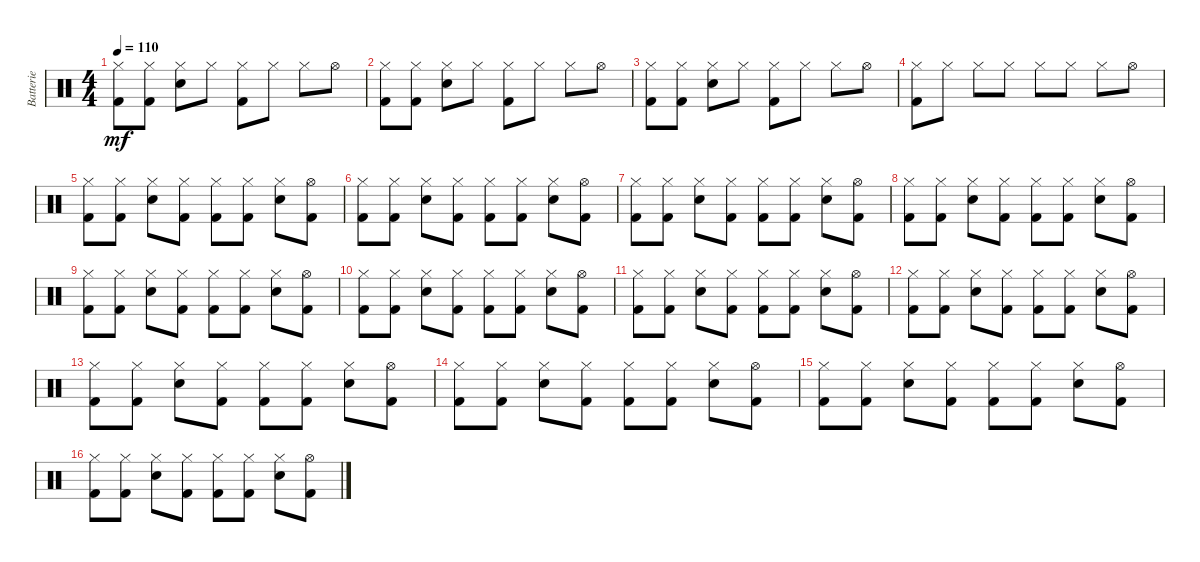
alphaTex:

\track ("Batterie" "Batterie") {instrument percussion}
\staff {score}
\articulation defaults
\ts (4 4)
\tempo 110
\clef neutral
\ks c
("Hi-Hat (closed)" "Kick (hit) 2").8{dy mf} ("Hi-Hat (closed)" "Kick (hit) 2").8 ("Hi-Hat (closed)" "Electric Snare (hit)").8 "Hi-Hat (closed)".8 ("Hi-Hat (closed)" "Kick (hit) 2").8 "Hi-Hat (closed)".8 "Hi-Hat (closed)".8 "Hi-Hat (open)".8 |
("Hi-Hat (closed)" "Kick (hit) 2").8 ("Hi-Hat (closed)" "Kick (hit) 2").8 ("Hi-Hat (closed)" "Electric Snare (hit)").8 "Hi-Hat (closed)".8 ("Hi-Hat (closed)" "Kick (hit) 2").8 "Hi-Hat (closed)".8 "Hi-Hat (closed)".8 "Hi-Hat (open)".8 |
("Hi-Hat (closed)" "Kick (hit) 2").8 ("Hi-Hat (closed)" "Kick (hit) 2").8 ("Hi-Hat (closed)" "Electric Snare (hit)").8 "Hi-Hat (closed)".8 ("Hi-Hat (closed)" "Kick (hit) 2").8 "Hi-Hat (closed)".8 "Hi-Hat (closed)".8 "Hi-Hat (open)".8 |
("Hi-Hat (closed)" "Kick (hit) 2").8 "Hi-Hat (closed)".8 "Hi-Hat (closed)".8 "Hi-Hat (closed)".8 "Hi-Hat (closed)".8 "Hi-Hat (closed)".8 "Hi-Hat (closed)".8 "Hi-Hat (open)".8 |
("Hi-Hat (closed)" "Kick (hit) 2").8 ("Hi-Hat (closed)" "Kick (hit) 2").8 ("Hi-Hat (closed)" "Electric Snare (hit)").8 ("Hi-Hat (closed)" "Kick (hit) 2").8 ("Hi-Hat (closed)" "Kick (hit) 2").8 ("Hi-Hat (closed)" "Kick (hit) 2").8 ("Hi-Hat (closed)" "Electric Snare (hit)").8 ("Hi-Hat (open)" "Kick (hit) 2").8 |
("Hi-Hat (closed)" "Kick (hit) 2").8 ("Hi-Hat (closed)" "Kick (hit) 2").8 ("Hi-Hat (closed)" "Electric Snare (hit)").8 ("Hi-Hat (closed)" "Kick (hit) 2").8 ("Hi-Hat (closed)" "Kick (hit) 2").8 ("Hi-Hat (closed)" "Kick (hit) 2").8 ("Hi-Hat (closed)" "Electric Snare (hit)").8 ("Hi-Hat (open)" "Kick (hit) 2").8 |
("Hi-Hat (closed)" "Kick (hit) 2").8 ("Hi-Hat (closed)" "Kick (hit) 2").8 ("Hi-Hat (closed)" "Electric Snare (hit)").8 ("Hi-Hat (closed)" "Kick (hit) 2").8 ("Hi-Hat (closed)" "Kick (hit) 2").8 ("Hi-Hat (closed)" "Kick (hit) 2").8 ("Hi-Hat (closed)" "Electric Snare (hit)").8 ("Hi-Hat (open)" "Kick (hit) 2").8 |
("Hi-Hat (closed)" "Kick (hit) 2").8 ("Hi-Hat (closed)" "Kick (hit) 2").8 ("Hi-Hat (closed)" "Electric Snare (hit)").8 ("Hi-Hat (closed)" "Kick (hit) 2").8 ("Hi-Hat (closed)" "Kick (hit) 2").8 ("Hi-Hat (closed)" "Kick (hit) 2").8 ("Hi-Hat (closed)" "Electric Snare (hit)").8 ("Hi-Hat (open)" "Kick (hit) 2").8 |
("Hi-Hat (closed)" "Kick (hit) 2").8 ("Hi-Hat (closed)" "Kick (hit) 2").8 ("Hi-Hat (closed)" "Electric Snare (hit)").8 ("Hi-Hat (closed)" "Kick (hit) 2").8 ("Hi-Hat (closed)" "Kick (hit) 2").8 ("Hi-Hat (closed)" "Kick (hit) 2").8 ("Hi-Hat (closed)" "Electric Snare (hit)").8 ("Hi-Hat (open)" "Kick (hit) 2").8 |
("Hi-Hat (closed)" "Kick (hit) 2").8 ("Hi-Hat (closed)" "Kick (hit) 2").8 ("Hi-Hat (closed)" "Electric Snare (hit)").8 ("Hi-Hat (closed)" "Kick (hit) 2").8 ("Hi-Hat (closed)" "Kick (hit) 2").8 ("Hi-Hat (closed)" "Kick (hit) 2").8 ("Hi-Hat (closed)" "Electric Snare (hit)").8 ("Hi-Hat (open)" "Kick (hit) 2").8 |
("Hi-Hat (closed)" "Kick (hit) 2").8 ("Hi-Hat (closed)" "Kick (hit) 2").8 ("Hi-Hat (closed)" "Electric Snare (hit)").8 ("Hi-Hat (closed)" "Kick (hit) 2").8 ("Hi-Hat (closed)" "Kick (hit) 2").8 ("Hi-Hat (closed)" "Kick (hit) 2").8 ("Hi-Hat (closed)" "Electric Snare (hit)").8 ("Hi-Hat (open)" "Kick (hit) 2").8 |
("Hi-Hat (closed)" "Kick (hit) 2").8 ("Hi-Hat (closed)" "Kick (hit) 2").8 ("Hi-Hat (closed)" "Electric Snare (hit)").8 ("Hi-Hat (closed)" "Kick (hit) 2").8 ("Hi-Hat (closed)" "Kick (hit) 2").8 ("Hi-Hat (closed)" "Kick (hit) 2").8 ("Hi-Hat (closed)" "Electric Snare (hit)").8 ("Hi-Hat (open)" "Kick (hit) 2").8 |
("Hi-Hat (closed)" "Kick (hit) 2").8 ("Hi-Hat (closed)" "Kick (hit) 2").8 ("Hi-Hat (closed)" "Electric Snare (hit)").8 ("Hi-Hat (closed)" "Kick (hit) 2").8 ("Hi-Hat (closed)" "Kick (hit) 2").8 ("Hi-Hat (closed)" "Kick (hit) 2").8 ("Hi-Hat (closed)" "Electric Snare (hit)").8 ("Hi-Hat (open)" "Kick (hit) 2").8 |
("Hi-Hat (closed)" "Kick (hit) 2").8 ("Hi-Hat (closed)" "Kick (hit) 2").8 ("Hi-Hat (closed)" "Electric Snare (hit)").8 ("Hi-Hat (closed)" "Kick (hit) 2").8 ("Hi-Hat (closed)" "Kick (hit) 2").8 ("Hi-Hat (closed)" "Kick (hit) 2").8 ("Hi-Hat (closed)" "Electric Snare (hit)").8 ("Hi-Hat (open)" "Kick (hit) 2").8 |
("Hi-Hat (closed)" "Kick (hit) 2").8 ("Hi-Hat (closed)" "Kick (hit) 2").8 ("Hi-Hat (closed)" "Electric Snare (hit)").8 ("Hi-Hat (closed)" "Kick (hit) 2").8 ("Hi-Hat (closed)" "Kick (hit) 2").8 ("Hi-Hat (closed)" "Kick (hit) 2").8 ("Hi-Hat (closed)" "Electric Snare (hit)").8 ("Hi-Hat (open)" "Kick (hit) 2").8 |
("Hi-Hat (closed)" "Kick (hit) 2").8 ("Hi-Hat (closed)" "Kick (hit) 2").8 ("Hi-Hat (closed)" "Electric Snare (hit)").8 ("Hi-Hat (closed)" "Kick (hit) 2").8 ("Hi-Hat (closed)" "Kick (hit) 2").8 ("Hi-Hat (closed)" "Kick (hit) 2").8 ("Hi-Hat (closed)" "Electric Snare (hit)").8 ("Hi-Hat (open)" "Kick (hit) 2").8
